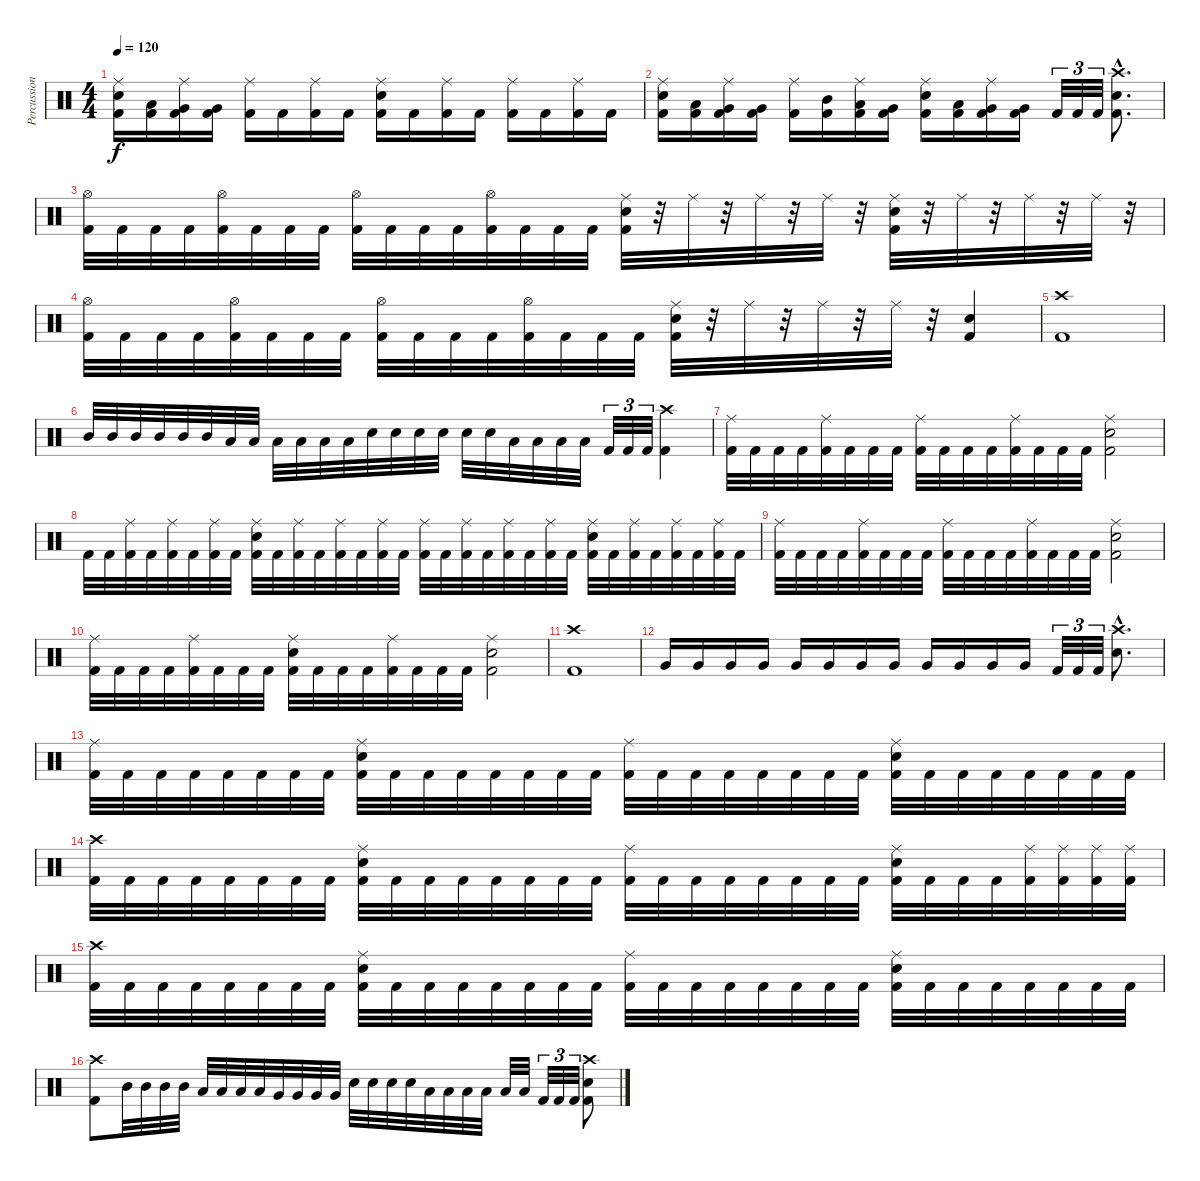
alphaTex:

\track ("Percussion" "Percussion") {instrument percussion}
\staff {score}
\articulation defaults
\ts (4 4)
\tempo 120
\clef neutral
\ks c
("Ride (middle)" "Snare (hit) 2" "Kick (hit) 2").16{dy f} ("Low Tom (hit)" "Kick (hit) 2").16 ("Ride (middle)" "Very Low Tom (hit)" "Kick (hit) 2").16 ("Very Low Tom (hit)" "Kick (hit) 2").16 ("Ride (middle)" "Kick (hit) 2").16 "Kick (hit) 2".16 ("Ride (middle)" "Kick (hit) 2").16 "Kick (hit) 2".16 ("Ride (middle)" "Snare (hit) 2" "Kick (hit) 2").16 "Kick (hit) 2".16 ("Ride (middle)" "Kick (hit) 2").16 "Kick (hit) 2".16 ("Ride (middle)" "Kick (hit) 2").16 "Kick (hit) 2".16 ("Ride (middle)" "Kick (hit) 2").16 "Kick (hit) 2".16 |
("Ride (middle)" "Snare (hit) 2" "Kick (hit) 2").16 ("Low Tom (hit)" "Kick (hit) 2").16 ("Ride (middle)" "Very Low Tom (hit)" "Kick (hit) 2").16 ("Very Low Tom (hit)" "Kick (hit) 2").16 ("Ride (middle)" "Kick (hit) 2").16 ("Mid Tom (hit)" "Kick (hit) 2").16 ("Ride (middle)" "Low Tom (hit)" "Kick (hit) 2").16 ("Very Low Tom (hit)" "Kick (hit) 2").16 ("Ride (middle)" "Snare (hit) 2" "Kick (hit) 2").16 ("Low Tom (hit)" "Kick (hit) 2").16 ("Ride (middle)" "Very Low Tom (hit)" "Kick (hit) 2").16 ("Very Low Tom (hit)" "Kick (hit) 2").16 "Kick (hit) 2".32{tu (3 2)} "Kick (hit) 2".32{tu (3 2)} "Kick (hit) 2".32{tu (3 2)} ("Crash high (hit)"{hac} "Snare (hit) 2"{hac} "Kick (hit) 2"{hac}).8{d} |
("Hi-Hat (open)" "Kick (hit) 2").32 "Kick (hit) 2".32 "Kick (hit) 2".32 "Kick (hit) 2".32 ("Hi-Hat (open)" "Kick (hit) 2").32 "Kick (hit) 2".32 "Kick (hit) 2".32 "Kick (hit) 2".32 ("Hi-Hat (open)" "Kick (hit) 2").32 "Kick (hit) 2".32 "Kick (hit) 2".32 "Kick (hit) 2".32 ("Hi-Hat (open)" "Kick (hit) 2").32 "Kick (hit) 2".32 "Kick (hit) 2".32 "Kick (hit) 2".32 ("Ride (middle)" "Snare (hit) 2" "Kick (hit) 2").32 r.32 "Ride (middle)".32 r.32 "Ride (middle)".32 r.32 "Ride (middle)".32 r.32 ("Ride (middle)" "Snare (hit) 2" "Kick (hit) 2").32 r.32 "Ride (middle)".32 r.32 "Ride (middle)".32 r.32 "Ride (middle)".32 r.32 |
("Hi-Hat (open)" "Kick (hit) 2").32 "Kick (hit) 2".32 "Kick (hit) 2".32 "Kick (hit) 2".32 ("Hi-Hat (open)" "Kick (hit) 2").32 "Kick (hit) 2".32 "Kick (hit) 2".32 "Kick (hit) 2".32 ("Hi-Hat (open)" "Kick (hit) 2").32 "Kick (hit) 2".32 "Kick (hit) 2".32 "Kick (hit) 2".32 ("Hi-Hat (open)" "Kick (hit) 2").32 "Kick (hit) 2".32 "Kick (hit) 2".32 "Kick (hit) 2".32 ("Ride (middle)" "Snare (hit) 2" "Kick (hit) 2").32 r.32 "Ride (middle)".32 r.32 "Ride (middle)".32 r.32 "Ride (middle)".32 r.32 ("Snare (hit) 2" "Kick (hit) 2").4 |
("Crash high (hit)" "Kick (hit) 2").1 |
"Mid Tom (hit)".32 "Mid Tom (hit)".32 "Mid Tom (hit)".32 "Mid Tom (hit)".32 "Mid Tom (hit)".32 "Mid Tom (hit)".32 "Low Tom (hit)".32 "Low Tom (hit)".32 "Low Tom (hit)".32 "Low Tom (hit)".32 "Low Tom (hit)".32 "Low Tom (hit)".32 "Snare (hit) 2".32 "Snare (hit) 2".32 "Snare (hit) 2".32 "Snare (hit) 2".32 "Snare (hit) 2".32 "Snare (hit) 2".32 "Low Tom (hit)".32 "Low Tom (hit)".32 "Low Tom (hit)".32 "Low Tom (hit)".32 "Kick (hit) 2".32{tu (3 2)} "Kick (hit) 2".32{tu (3 2)} "Kick (hit) 2".32{tu (3 2)} ("Crash high (hit)" "Kick (hit) 2").4 |
("Ride (middle)" "Kick (hit) 2").32 "Kick (hit) 2".32 "Kick (hit) 2".32 "Kick (hit) 2".32 ("Ride (middle)" "Kick (hit) 2").32 "Kick (hit) 2".32 "Kick (hit) 2".32 "Kick (hit) 2".32 ("Ride (middle)" "Kick (hit) 2").32 "Kick (hit) 2".32 "Kick (hit) 2".32 "Kick (hit) 2".32 ("Ride (middle)" "Kick (hit) 2").32 "Kick (hit) 2".32 "Kick (hit) 2".32 "Kick (hit) 2".32 ("Ride (middle)" "Snare (hit) 2" "Kick (hit) 2").2 |
"Kick (hit) 2".32 "Kick (hit) 2".32 ("Ride (middle)" "Kick (hit) 2").32 "Kick (hit) 2".32 ("Ride (middle)" "Kick (hit) 2").32 "Kick (hit) 2".32 ("Ride (middle)" "Kick (hit) 2").32 "Kick (hit) 2".32 ("Ride (middle)" "Snare (hit) 2" "Kick (hit) 2").32 "Kick (hit) 2".32 ("Ride (middle)" "Kick (hit) 2").32 "Kick (hit) 2".32 ("Ride (middle)" "Kick (hit) 2").32 "Kick (hit) 2".32 ("Ride (middle)" "Kick (hit) 2").32 "Kick (hit) 2".32 ("Ride (middle)" "Kick (hit) 2").32 "Kick (hit) 2".32 ("Ride (middle)" "Kick (hit) 2").32 "Kick (hit) 2".32 ("Ride (middle)" "Kick (hit) 2").32 "Kick (hit) 2".32 ("Ride (middle)" "Kick (hit) 2").32 "Kick (hit) 2".32 ("Ride (middle)" "Snare (hit) 2" "Kick (hit) 2").32 "Kick (hit) 2".32 ("Ride (middle)" "Kick (hit) 2").32 "Kick (hit) 2".32 ("Ride (middle)" "Kick (hit) 2").32 "Kick (hit) 2".32 ("Ride (middle)" "Kick (hit) 2").32 "Kick (hit) 2".32 |
("Ride (middle)" "Kick (hit) 2").32 "Kick (hit) 2".32 "Kick (hit) 2".32 "Kick (hit) 2".32 ("Ride (middle)" "Kick (hit) 2").32 "Kick (hit) 2".32 "Kick (hit) 2".32 "Kick (hit) 2".32 ("Ride (middle)" "Kick (hit) 2").32 "Kick (hit) 2".32 "Kick (hit) 2".32 "Kick (hit) 2".32 ("Ride (middle)" "Kick (hit) 2").32 "Kick (hit) 2".32 "Kick (hit) 2".32 "Kick (hit) 2".32 ("Ride (middle)" "Snare (hit) 2" "Kick (hit) 2").2 |
("Ride (middle)" "Kick (hit) 2").32 "Kick (hit) 2".32 "Kick (hit) 2".32 "Kick (hit) 2".32 ("Ride (middle)" "Kick (hit) 2").32 "Kick (hit) 2".32 "Kick (hit) 2".32 "Kick (hit) 2".32 ("Ride (middle)" "Snare (hit) 2" "Kick (hit) 2").32 "Kick (hit) 2".32 "Kick (hit) 2".32 "Kick (hit) 2".32 ("Ride (middle)" "Kick (hit) 2").32 "Kick (hit) 2".32 "Kick (hit) 2".32 "Kick (hit) 2".32 ("Ride (middle)" "Snare (hit) 2" "Kick (hit) 2").2 |
("Crash high (hit)" "Kick (hit) 2").1 |
"Very Low Tom (hit)".16 "Very Low Tom (hit)".16 "Very Low Tom (hit)".16 "Very Low Tom (hit)".16 "Very Low Tom (hit)".16 "Very Low Tom (hit)".16 "Very Low Tom (hit)".16 "Very Low Tom (hit)".16 "Very Low Tom (hit)".16 "Very Low Tom (hit)".16 "Very Low Tom (hit)".16 "Very Low Tom (hit)".16 "Kick (hit) 2".32{tu (3 2)} "Kick (hit) 2".32{tu (3 2)} "Kick (hit) 2".32{tu (3 2)} ("Crash high (hit)"{hac} "Snare (hit) 2"{hac}).8{d} |
("Ride (middle)" "Kick (hit) 2").32 "Kick (hit) 2".32 "Kick (hit) 2".32 "Kick (hit) 2".32 "Kick (hit) 2".32 "Kick (hit) 2".32 "Kick (hit) 2".32 "Kick (hit) 2".32 ("Ride (middle)" "Snare (hit) 2" "Kick (hit) 2").32 "Kick (hit) 2".32 "Kick (hit) 2".32 "Kick (hit) 2".32 "Kick (hit) 2".32 "Kick (hit) 2".32 "Kick (hit) 2".32 "Kick (hit) 2".32 ("Ride (middle)" "Kick (hit) 2").32 "Kick (hit) 2".32 "Kick (hit) 2".32 "Kick (hit) 2".32 "Kick (hit) 2".32 "Kick (hit) 2".32 "Kick (hit) 2".32 "Kick (hit) 2".32 ("Ride (middle)" "Snare (hit) 2" "Kick (hit) 2").32 "Kick (hit) 2".32 "Kick (hit) 2".32 "Kick (hit) 2".32 "Kick (hit) 2".32 "Kick (hit) 2".32 "Kick (hit) 2".32 "Kick (hit) 2".32 |
("Crash high (hit)" "Kick (hit) 2").32 "Kick (hit) 2".32 "Kick (hit) 2".32 "Kick (hit) 2".32 "Kick (hit) 2".32 "Kick (hit) 2".32 "Kick (hit) 2".32 "Kick (hit) 2".32 ("Ride (middle)" "Snare (hit) 2" "Kick (hit) 2").32 "Kick (hit) 2".32 "Kick (hit) 2".32 "Kick (hit) 2".32 "Kick (hit) 2".32 "Kick (hit) 2".32 "Kick (hit) 2".32 "Kick (hit) 2".32 ("Ride (middle)" "Kick (hit) 2").32 "Kick (hit) 2".32 "Kick (hit) 2".32 "Kick (hit) 2".32 "Kick (hit) 2".32 "Kick (hit) 2".32 "Kick (hit) 2".32 "Kick (hit) 2".32 ("Ride (middle)" "Snare (hit) 2" "Kick (hit) 2").32 "Kick (hit) 2".32 "Kick (hit) 2".32 "Kick (hit) 2".32 ("Ride (middle)" "Kick (hit) 2").32 ("Ride (middle)" "Kick (hit) 2").32 ("Ride (middle)" "Kick (hit) 2").32 ("Ride (middle)" "Kick (hit) 2").32 |
("Crash high (hit)" "Kick (hit) 2").32 "Kick (hit) 2".32 "Kick (hit) 2".32 "Kick (hit) 2".32 "Kick (hit) 2".32 "Kick (hit) 2".32 "Kick (hit) 2".32 "Kick (hit) 2".32 ("Ride (middle)" "Snare (hit) 2" "Kick (hit) 2").32 "Kick (hit) 2".32 "Kick (hit) 2".32 "Kick (hit) 2".32 "Kick (hit) 2".32 "Kick (hit) 2".32 "Kick (hit) 2".32 "Kick (hit) 2".32 ("Ride (middle)" "Kick (hit) 2").32 "Kick (hit) 2".32 "Kick (hit) 2".32 "Kick (hit) 2".32 "Kick (hit) 2".32 "Kick (hit) 2".32 "Kick (hit) 2".32 "Kick (hit) 2".32 ("Ride (middle)" "Snare (hit) 2" "Kick (hit) 2").32 "Kick (hit) 2".32 "Kick (hit) 2".32 "Kick (hit) 2".32 "Kick (hit) 2".32 "Kick (hit) 2".32 "Kick (hit) 2".32 "Kick (hit) 2".32 |
("Crash high (hit)" "Kick (hit) 2").8 "Mid Tom (hit)".32 "Mid Tom (hit)".32 "Mid Tom (hit)".32 "Mid Tom (hit)".32 "Low Tom (hit)".32 "Low Tom (hit)".32 "Low Tom (hit)".32 "Low Tom (hit)".32 "Very Low Tom (hit)".32 "Very Low Tom (hit)".32 "Very Low Tom (hit)".32 "Very Low Tom (hit)".32 "Snare (hit) 2".32 "Snare (hit) 2".32 "Snare (hit) 2".32 "Snare (hit) 2".32 "Low Tom (hit)".32 "Low Tom (hit)".32 "Low Tom (hit)".32 "Low Tom (hit)".32 "Low Tom (hit)".32 "Low Tom (hit)".32 "Kick (hit) 2".32{tu (3 2)} "Kick (hit) 2".32{tu (3 2)} "Kick (hit) 2".32{tu (3 2)} ("Crash high (hit)" "Snare (hit) 2" "Kick (hit) 2").8
